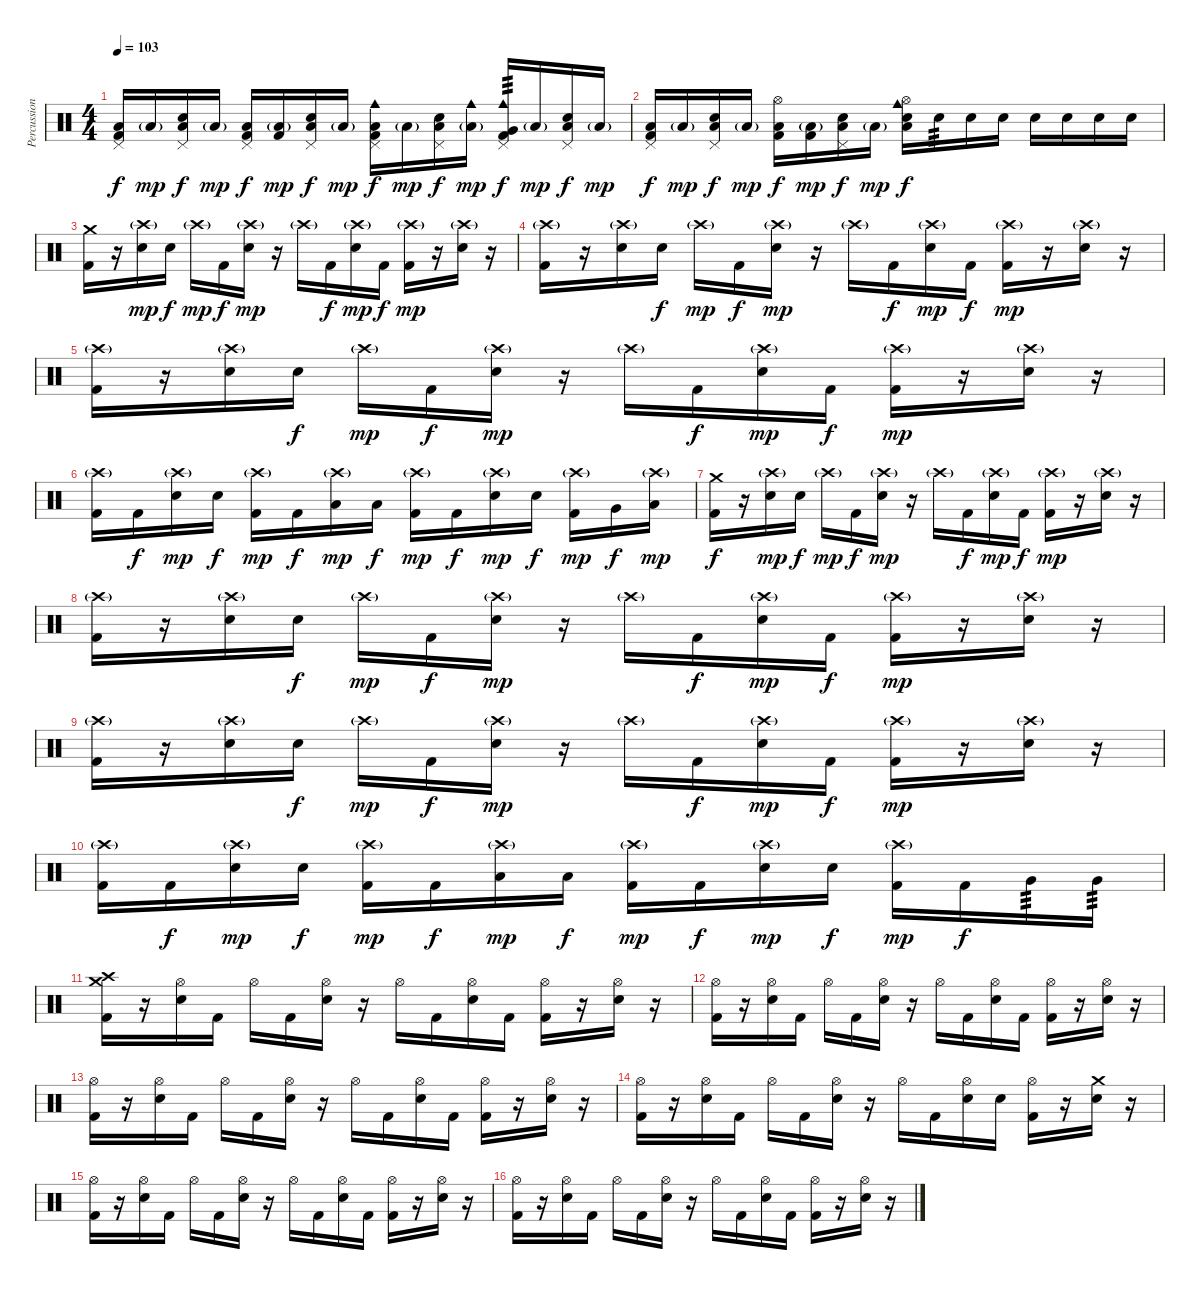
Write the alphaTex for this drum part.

\track ("Percussion" "Percussion") {instrument percussion}
\staff {score}
\articulation defaults
\ts (4 4)
\tempo 103
\clef neutral
\ks c
("Low Floor Tom (hit)" "Kick (hit) 2" "Pedal Hi-Hat (hit)").16{dy f} "Low Floor Tom (hit)"{g}.16{dy mp} ("Low Floor Tom (hit)" "Electric Snare (hit)" "Pedal Hi-Hat (hit)").16{dy f} "Low Floor Tom (hit)"{g}.16{dy mp} ("Low Floor Tom (hit)" "Kick (hit) 2" "Pedal Hi-Hat (hit)").16{dy f} ("Low Floor Tom (hit)"{g} "Kick (hit) 2").16{dy mp} ("Low Floor Tom (hit)" "Electric Snare (hit)" "Pedal Hi-Hat (hit)").16{dy f} "Low Floor Tom (hit)"{g}.16{dy mp} ("Low Floor Tom (hit)" "Kick (hit) 2" "Cowbell medium (hit)" "Pedal Hi-Hat (hit)").16{dy f} "Low Floor Tom (hit)"{g}.16{dy mp} ("Low Floor Tom (hit)" "Electric Snare (hit)" "Pedal Hi-Hat (hit)").16{dy f} ("Low Floor Tom (hit)"{g} "Cowbell medium (hit)").16{dy mp} ("Very Low Tom (hit)" "Kick (hit) 2" "Cowbell medium (hit)" "Pedal Hi-Hat (hit)").16{tp 3 dy f} "Low Floor Tom (hit)"{g}.16{dy mp} ("Low Floor Tom (hit)" "Electric Snare (hit)" "Pedal Hi-Hat (hit)").16{dy f} "Low Floor Tom (hit)"{g}.16{dy mp} |
("Low Floor Tom (hit)" "Kick (hit) 2" "Pedal Hi-Hat (hit)").16{dy f} "Low Floor Tom (hit)"{g}.16{dy mp} ("Low Floor Tom (hit)" "Electric Snare (hit)" "Pedal Hi-Hat (hit)").16{dy f} "Low Floor Tom (hit)"{g}.16{dy mp} ("Low Floor Tom (hit)" "Kick (hit) 2" "Hi-Hat (open)").16{dy f} ("Low Floor Tom (hit)"{g} "Kick (hit) 2").16{dy mp} ("Low Floor Tom (hit)" "Electric Snare (hit)" "Pedal Hi-Hat (hit)").16{dy f} "Low Floor Tom (hit)"{g}.16{dy mp} ("Low Floor Tom (hit)" "Electric Snare (hit)" "Cowbell medium (hit)" "Hi-Hat (open)").16{dy f} "Electric Snare (hit)".16{tp 3} "Electric Snare (hit)".16 "Electric Snare (hit)".16 "Electric Snare (hit)".16 "Electric Snare (hit)".16 "Electric Snare (hit)".16 "Electric Snare (hit)".16 |
("Crash medium (hit)" "Kick (hit) 2").16 r.16 ("Crash high (hit)"{g} "Electric Snare (hit)").16{dy mp} "Electric Snare (hit)".16{dy f} "Crash high (hit)"{g}.16{dy mp} "Kick (hit) 2".16{dy f} ("Crash high (hit)"{g} "Electric Snare (hit)").16{dy mp} r.16 "Crash high (hit)"{g}.16 "Kick (hit) 2".16{dy f} ("Crash high (hit)"{g} "Electric Snare (hit)").16{dy mp} "Kick (hit) 2".16{dy f} ("Crash high (hit)"{g} "Kick (hit) 2").16{dy mp} r.16 ("Crash high (hit)"{g} "Electric Snare (hit)").16 r.16 |
("Crash high (hit)"{g} "Kick (hit) 2").16 r.16 ("Crash high (hit)"{g} "Electric Snare (hit)").16 "Electric Snare (hit)".16{dy f} "Crash high (hit)"{g}.16{dy mp} "Kick (hit) 2".16{dy f} ("Crash high (hit)"{g} "Electric Snare (hit)").16{dy mp} r.16 "Crash high (hit)"{g}.16 "Kick (hit) 2".16{dy f} ("Crash high (hit)"{g} "Electric Snare (hit)").16{dy mp} "Kick (hit) 2".16{dy f} ("Crash high (hit)"{g} "Kick (hit) 2").16{dy mp} r.16 ("Crash high (hit)"{g} "Electric Snare (hit)").16 r.16 |
("Crash high (hit)"{g} "Kick (hit) 2").16 r.16 ("Crash high (hit)"{g} "Electric Snare (hit)").16 "Electric Snare (hit)".16{dy f} "Crash high (hit)"{g}.16{dy mp} "Kick (hit) 2".16{dy f} ("Crash high (hit)"{g} "Electric Snare (hit)").16{dy mp} r.16 "Crash high (hit)"{g}.16 "Kick (hit) 2".16{dy f} ("Crash high (hit)"{g} "Electric Snare (hit)").16{dy mp} "Kick (hit) 2".16{dy f} ("Crash high (hit)"{g} "Kick (hit) 2").16{dy mp} r.16 ("Crash high (hit)"{g} "Electric Snare (hit)").16 r.16 |
("Crash high (hit)"{g} "Kick (hit) 2").16 "Kick (hit) 2".16{dy f} ("Crash high (hit)"{g} "Electric Snare (hit)").16{dy mp} "Electric Snare (hit)".16{dy f} ("Crash high (hit)"{g} "Kick (hit) 2").16{dy mp} "Kick (hit) 2".16{dy f} ("Crash high (hit)"{g} "Low Tom (hit)").16{dy mp} "Low Tom (hit)".16{dy f} ("Crash high (hit)"{g} "Kick (hit) 2").16{dy mp} "Kick (hit) 2".16{dy f} ("Crash high (hit)"{g} "Electric Snare (hit)").16{dy mp} "Electric Snare (hit)".16{dy f} ("Crash high (hit)"{g} "Kick (hit) 2").16{dy mp} "Very Low Tom (hit)".16{dy f} ("Crash high (hit)"{g} "Low Tom (hit)").16{dy mp} |
("Crash medium (hit)" "Kick (hit) 2").16{dy f} r.16 ("Crash high (hit)"{g} "Electric Snare (hit)").16{dy mp} "Electric Snare (hit)".16{dy f} "Crash high (hit)"{g}.16{dy mp} "Kick (hit) 2".16{dy f} ("Crash high (hit)"{g} "Electric Snare (hit)").16{dy mp} r.16 "Crash high (hit)"{g}.16 "Kick (hit) 2".16{dy f} ("Crash high (hit)"{g} "Electric Snare (hit)").16{dy mp} "Kick (hit) 2".16{dy f} ("Crash high (hit)"{g} "Kick (hit) 2").16{dy mp} r.16 ("Crash high (hit)"{g} "Electric Snare (hit)").16 r.16 |
("Crash high (hit)"{g} "Kick (hit) 2").16 r.16 ("Crash high (hit)"{g} "Electric Snare (hit)").16 "Electric Snare (hit)".16{dy f} "Crash high (hit)"{g}.16{dy mp} "Kick (hit) 2".16{dy f} ("Crash high (hit)"{g} "Electric Snare (hit)").16{dy mp} r.16 "Crash high (hit)"{g}.16 "Kick (hit) 2".16{dy f} ("Crash high (hit)"{g} "Electric Snare (hit)").16{dy mp} "Kick (hit) 2".16{dy f} ("Crash high (hit)"{g} "Kick (hit) 2").16{dy mp} r.16 ("Crash high (hit)"{g} "Electric Snare (hit)").16 r.16 |
("Crash high (hit)"{g} "Kick (hit) 2").16 r.16 ("Crash high (hit)"{g} "Electric Snare (hit)").16 "Electric Snare (hit)".16{dy f} "Crash high (hit)"{g}.16{dy mp} "Kick (hit) 2".16{dy f} ("Crash high (hit)"{g} "Electric Snare (hit)").16{dy mp} r.16 "Crash high (hit)"{g}.16 "Kick (hit) 2".16{dy f} ("Crash high (hit)"{g} "Electric Snare (hit)").16{dy mp} "Kick (hit) 2".16{dy f} ("Crash high (hit)"{g} "Kick (hit) 2").16{dy mp} r.16 ("Crash high (hit)"{g} "Electric Snare (hit)").16 r.16 |
("Crash high (hit)"{g} "Kick (hit) 2").16 "Kick (hit) 2".16{dy f} ("Crash high (hit)"{g} "Electric Snare (hit)").16{dy mp} "Electric Snare (hit)".16{dy f} ("Crash high (hit)"{g} "Kick (hit) 2").16{dy mp} "Kick (hit) 2".16{dy f} ("Crash high (hit)"{g} "Low Tom (hit)").16{dy mp} "Low Tom (hit)".16{dy f} ("Crash high (hit)"{g} "Kick (hit) 2").16{dy mp} "Kick (hit) 2".16{dy f} ("Crash high (hit)"{g} "Electric Snare (hit)").16{dy mp} "Electric Snare (hit)".16{dy f} ("Crash high (hit)"{g} "Kick (hit) 2").16{dy mp} "Kick (hit) 2".16{dy f} "Very Low Tom (hit)".16{tp 3} "Very Low Tom (hit)".16{tp 3} |
("Crash medium (hit)" "Kick (hit) 2" "Crash high (hit)").16 r.16 ("Hi-Hat (open)" "Electric Snare (hit)").16 "Kick (hit) 2".16 "Hi-Hat (open)".16 "Kick (hit) 2".16 ("Hi-Hat (open)" "Electric Snare (hit)").16 r.16 "Hi-Hat (open)".16 "Kick (hit) 2".16 ("Hi-Hat (open)" "Electric Snare (hit)").16 "Kick (hit) 2".16 ("Hi-Hat (open)" "Kick (hit) 2").16 r.16 ("Hi-Hat (open)" "Electric Snare (hit)").16 r.16 |
("Hi-Hat (open)" "Kick (hit) 2").16 r.16 ("Hi-Hat (open)" "Electric Snare (hit)").16 "Kick (hit) 2".16 "Hi-Hat (open)".16 "Kick (hit) 2".16 ("Hi-Hat (open)" "Electric Snare (hit)").16 r.16 "Hi-Hat (open)".16 "Kick (hit) 2".16 ("Hi-Hat (open)" "Electric Snare (hit)").16 "Kick (hit) 2".16 ("Hi-Hat (open)" "Kick (hit) 2").16 r.16 ("Hi-Hat (open)" "Electric Snare (hit)").16 r.16 |
("Hi-Hat (open)" "Kick (hit) 2").16 r.16 ("Hi-Hat (open)" "Electric Snare (hit)").16 "Kick (hit) 2".16 "Hi-Hat (open)".16 "Kick (hit) 2".16 ("Hi-Hat (open)" "Electric Snare (hit)").16 r.16 "Hi-Hat (open)".16 "Kick (hit) 2".16 ("Hi-Hat (open)" "Electric Snare (hit)").16 "Kick (hit) 2".16 ("Hi-Hat (open)" "Kick (hit) 2").16 r.16 ("Hi-Hat (open)" "Electric Snare (hit)").16 r.16 |
("Hi-Hat (open)" "Kick (hit) 2").16 r.16 ("Hi-Hat (open)" "Electric Snare (hit)").16 "Kick (hit) 2".16 "Hi-Hat (open)".16 "Kick (hit) 2".16 ("Hi-Hat (open)" "Electric Snare (hit)").16 r.16 "Hi-Hat (open)".16 "Kick (hit) 2".16 ("Hi-Hat (open)" "Electric Snare (hit)").16 "Electric Snare (hit)".16 ("Hi-Hat (open)" "Kick (hit) 2").16 r.16 ("Crash medium (hit)" "Electric Snare (hit)").16 r.16 |
("Hi-Hat (open)" "Kick (hit) 2").16 r.16 ("Hi-Hat (open)" "Electric Snare (hit)").16 "Kick (hit) 2".16 "Hi-Hat (open)".16 "Kick (hit) 2".16 ("Hi-Hat (open)" "Electric Snare (hit)").16 r.16 "Hi-Hat (open)".16 "Kick (hit) 2".16 ("Hi-Hat (open)" "Electric Snare (hit)").16 "Kick (hit) 2".16 ("Hi-Hat (open)" "Kick (hit) 2").16 r.16 ("Hi-Hat (open)" "Electric Snare (hit)").16 r.16 |
("Hi-Hat (open)" "Kick (hit) 2").16 r.16 ("Hi-Hat (open)" "Electric Snare (hit)").16 "Kick (hit) 2".16 "Hi-Hat (open)".16 "Kick (hit) 2".16 ("Hi-Hat (open)" "Electric Snare (hit)").16 r.16 "Hi-Hat (open)".16 "Kick (hit) 2".16 ("Hi-Hat (open)" "Electric Snare (hit)").16 "Kick (hit) 2".16 ("Hi-Hat (open)" "Kick (hit) 2").16 r.16 ("Hi-Hat (open)" "Electric Snare (hit)").16 r.16
